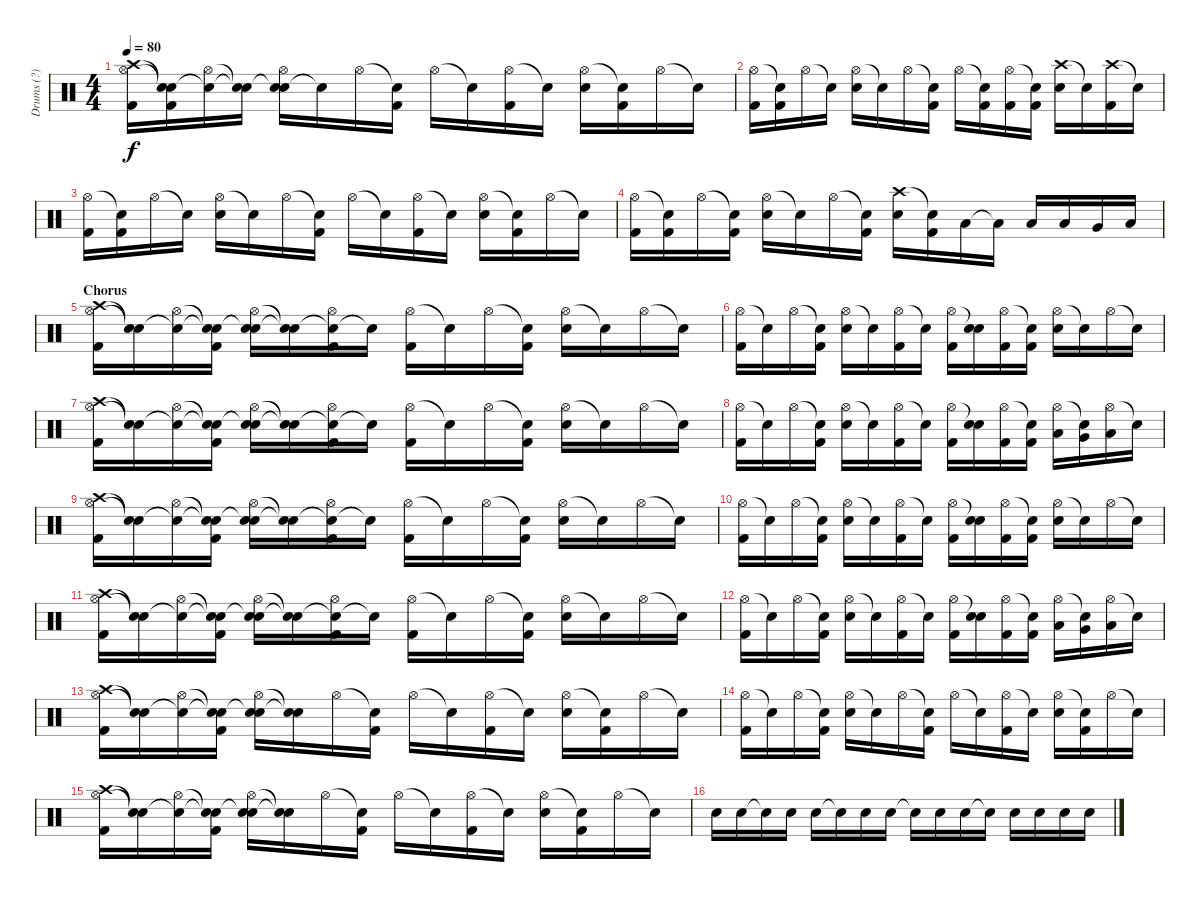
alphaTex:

\track ("Drums (?)" "Drums (?)") {instrument percussion}
\staff {score}
\articulation defaults
\ts (4 4)
\tempo 80
\clef neutral
\ks c
("Crash high (hit)" "Hi-Hat (open)" "Kick (hit) 2").16{dy f} ("Snare (hit)"{t} "Snare (hit)"{t} "Kick (hit) 2").16 ("Snare (hit)"{t} "Hi-Hat (open)").16 ("Snare (hit)"{t} "Snare (hit)"{t}).16 ("Snare (hit)"{t} "Hi-Hat (open)" "Electric Snare (hit)").16 "Snare (hit)"{t}.16 "Hi-Hat (open)".16 ("Snare (hit)"{t} "Kick (hit) 2").16 "Hi-Hat (open)".16 "Snare (hit)"{t}.16 ("Hi-Hat (open)" "Kick (hit) 2").16 "Snare (hit)"{t}.16 ("Hi-Hat (open)" "Electric Snare (hit)").16 ("Snare (hit)"{t} "Kick (hit) 2").16 "Hi-Hat (open)".16 "Snare (hit)"{t}.16 |
("Hi-Hat (open)" "Kick (hit) 2").16 ("Snare (hit)"{t} "Kick (hit) 2").16 "Hi-Hat (open)".16 "Snare (hit)"{t}.16 ("Hi-Hat (open)" "Electric Snare (hit)").16 "Snare (hit)"{t}.16 "Hi-Hat (open)".16 ("Snare (hit)"{t} "Kick (hit) 2").16 "Hi-Hat (open)".16 ("Snare (hit)"{t} "Kick (hit) 2").16 ("Hi-Hat (open)" "Kick (hit) 2").16 ("Snare (hit)"{t} "Kick (hit) 2").16 ("Crash high (hit)" "Electric Snare (hit)").16 "Snare (hit)"{t}.16 ("Crash high (hit)" "Kick (hit) 2").16 "Snare (hit)"{t}.16 |
("Hi-Hat (open)" "Kick (hit) 2").16 ("Snare (hit)"{t} "Kick (hit) 2").16 "Hi-Hat (open)".16 "Snare (hit)"{t}.16 ("Hi-Hat (open)" "Electric Snare (hit)").16 "Snare (hit)"{t}.16 "Hi-Hat (open)".16 ("Snare (hit)"{t} "Kick (hit) 2").16 "Hi-Hat (open)".16 "Snare (hit)"{t}.16 ("Hi-Hat (open)" "Kick (hit) 2").16 "Snare (hit)"{t}.16 ("Hi-Hat (open)" "Electric Snare (hit)").16 ("Snare (hit)"{t} "Kick (hit) 2").16 "Hi-Hat (open)".16 "Snare (hit)"{t}.16 |
("Hi-Hat (open)" "Kick (hit) 2").16 ("Snare (hit)"{t} "Kick (hit) 2").16 "Hi-Hat (open)".16 ("Snare (hit)"{t} "Kick (hit) 2").16 ("Hi-Hat (open)" "Electric Snare (hit)").16 "Snare (hit)"{t}.16 "Hi-Hat (open)".16 ("Snare (hit)"{t} "Kick (hit) 2").16 ("Crash high (hit)" "Electric Snare (hit)").16 ("Snare (hit)"{t} "Kick (hit) 2").16 "Low Tom (hit)".16 "Low Tom (hit)"{t}.16 "Low Tom (hit)".16 "Low Tom (hit)".16 "Very Low Tom (hit)".16 "Low Floor Tom (hit)".16 |
\section ("" "Chorus")
("Crash high (hit)" "Hi-Hat (open)" "Kick (hit) 2").16 ("Snare (hit)"{t} "Snare (hit)"{t}).16 ("Snare (hit)"{t} "Hi-Hat (open)").16 ("Snare (hit)"{t} "Snare (hit)"{t} "Kick (hit) 2").16 ("Snare (hit)"{t} "Hi-Hat (open)" "Electric Snare (hit)").16 ("Snare (hit)"{t} "Snare (hit)"{t}).16 ("Snare (hit)"{t} "Hi-Hat (open)" "Kick (hit) 2").16 "Snare (hit)"{t}.16 ("Hi-Hat (open)" "Kick (hit) 2").16 "Snare (hit)"{t}.16 "Hi-Hat (open)".16 ("Snare (hit)"{t} "Kick (hit) 2").16 ("Hi-Hat (open)" "Electric Snare (hit)").16 "Snare (hit)"{t}.16 "Hi-Hat (open)".16 "Snare (hit)"{t}.16 |
("Hi-Hat (open)" "Kick (hit) 2").16 "Snare (hit)"{t}.16 "Hi-Hat (open)".16 ("Snare (hit)"{t} "Kick (hit) 2").16 ("Hi-Hat (open)" "Electric Snare (hit)").16 "Snare (hit)"{t}.16 ("Hi-Hat (open)" "Kick (hit) 2").16 "Snare (hit)"{t}.16 ("Hi-Hat (open)" "Kick (hit) 2").16 ("Snare (hit)"{t} "Electric Snare (hit)").16 ("Hi-Hat (open)" "Kick (hit) 2").16 ("Snare (hit)"{t} "Kick (hit) 2").16 ("Hi-Hat (open)" "Electric Snare (hit)").16 "Snare (hit)"{t}.16 "Hi-Hat (open)".16 "Snare (hit)"{t}.16 |
("Crash high (hit)" "Hi-Hat (open)" "Kick (hit) 2").16 ("Snare (hit)"{t} "Snare (hit)"{t}).16 ("Snare (hit)"{t} "Hi-Hat (open)").16 ("Snare (hit)"{t} "Snare (hit)"{t} "Kick (hit) 2").16 ("Snare (hit)"{t} "Hi-Hat (open)" "Electric Snare (hit)").16 ("Snare (hit)"{t} "Snare (hit)"{t}).16 ("Snare (hit)"{t} "Hi-Hat (open)" "Kick (hit) 2").16 "Snare (hit)"{t}.16 ("Hi-Hat (open)" "Kick (hit) 2").16 "Snare (hit)"{t}.16 "Hi-Hat (open)".16 ("Snare (hit)"{t} "Kick (hit) 2").16 ("Hi-Hat (open)" "Electric Snare (hit)").16 "Snare (hit)"{t}.16 "Hi-Hat (open)".16 "Snare (hit)"{t}.16 |
("Hi-Hat (open)" "Kick (hit) 2").16 "Snare (hit)"{t}.16 "Hi-Hat (open)".16 ("Snare (hit)"{t} "Kick (hit) 2").16 ("Hi-Hat (open)" "Electric Snare (hit)").16 "Snare (hit)"{t}.16 ("Hi-Hat (open)" "Kick (hit) 2").16 "Snare (hit)"{t}.16 ("Hi-Hat (open)" "Kick (hit) 2").16 ("Snare (hit)"{t} "Electric Snare (hit)").16 ("Hi-Hat (open)" "Kick (hit) 2").16 ("Snare (hit)"{t} "Kick (hit) 2").16 ("Hi-Hat (open)" "Low Tom (hit)").16 ("Snare (hit)"{t} "Very Low Tom (hit)").16 ("Hi-Hat (open)" "Low Floor Tom (hit)").16 "Snare (hit)"{t}.16 |
("Crash high (hit)" "Hi-Hat (open)" "Kick (hit) 2").16 ("Snare (hit)"{t} "Snare (hit)"{t}).16 ("Snare (hit)"{t} "Hi-Hat (open)").16 ("Snare (hit)"{t} "Snare (hit)"{t} "Kick (hit) 2").16 ("Snare (hit)"{t} "Hi-Hat (open)" "Electric Snare (hit)").16 ("Snare (hit)"{t} "Snare (hit)"{t}).16 ("Snare (hit)"{t} "Hi-Hat (open)" "Kick (hit) 2").16 "Snare (hit)"{t}.16 ("Hi-Hat (open)" "Kick (hit) 2").16 "Snare (hit)"{t}.16 "Hi-Hat (open)".16 ("Snare (hit)"{t} "Kick (hit) 2").16 ("Hi-Hat (open)" "Electric Snare (hit)").16 "Snare (hit)"{t}.16 "Hi-Hat (open)".16 "Snare (hit)"{t}.16 |
("Hi-Hat (open)" "Kick (hit) 2").16 "Snare (hit)"{t}.16 "Hi-Hat (open)".16 ("Snare (hit)"{t} "Kick (hit) 2").16 ("Hi-Hat (open)" "Electric Snare (hit)").16 "Snare (hit)"{t}.16 ("Hi-Hat (open)" "Kick (hit) 2").16 "Snare (hit)"{t}.16 ("Hi-Hat (open)" "Kick (hit) 2").16 ("Snare (hit)"{t} "Electric Snare (hit)").16 ("Hi-Hat (open)" "Kick (hit) 2").16 ("Snare (hit)"{t} "Kick (hit) 2").16 ("Hi-Hat (open)" "Electric Snare (hit)").16 "Snare (hit)"{t}.16 "Hi-Hat (open)".16 "Snare (hit)"{t}.16 |
("Crash high (hit)" "Hi-Hat (open)" "Kick (hit) 2").16 ("Snare (hit)"{t} "Snare (hit)"{t}).16 ("Snare (hit)"{t} "Hi-Hat (open)").16 ("Snare (hit)"{t} "Snare (hit)"{t} "Kick (hit) 2").16 ("Snare (hit)"{t} "Hi-Hat (open)" "Electric Snare (hit)").16 ("Snare (hit)"{t} "Snare (hit)"{t}).16 ("Snare (hit)"{t} "Hi-Hat (open)" "Kick (hit) 2").16 "Snare (hit)"{t}.16 ("Hi-Hat (open)" "Kick (hit) 2").16 "Snare (hit)"{t}.16 "Hi-Hat (open)".16 ("Snare (hit)"{t} "Kick (hit) 2").16 ("Hi-Hat (open)" "Electric Snare (hit)").16 "Snare (hit)"{t}.16 "Hi-Hat (open)".16 "Snare (hit)"{t}.16 |
("Hi-Hat (open)" "Kick (hit) 2").16 "Snare (hit)"{t}.16 "Hi-Hat (open)".16 ("Snare (hit)"{t} "Kick (hit) 2").16 ("Hi-Hat (open)" "Electric Snare (hit)").16 "Snare (hit)"{t}.16 ("Hi-Hat (open)" "Kick (hit) 2").16 "Snare (hit)"{t}.16 ("Hi-Hat (open)" "Kick (hit) 2").16 ("Snare (hit)"{t} "Electric Snare (hit)").16 ("Hi-Hat (open)" "Kick (hit) 2").16 ("Snare (hit)"{t} "Kick (hit) 2").16 ("Hi-Hat (open)" "Low Tom (hit)").16 ("Snare (hit)"{t} "Very Low Tom (hit)").16 ("Hi-Hat (open)" "Low Floor Tom (hit)").16 "Snare (hit)"{t}.16 |
("Crash high (hit)" "Hi-Hat (open)" "Kick (hit) 2").16 ("Snare (hit)"{t} "Snare (hit)"{t}).16 ("Snare (hit)"{t} "Hi-Hat (open)").16 ("Snare (hit)"{t} "Snare (hit)"{t} "Kick (hit) 2").16 ("Snare (hit)"{t} "Hi-Hat (open)" "Electric Snare (hit)").16 ("Snare (hit)"{t} "Snare (hit)"{t}).16 "Hi-Hat (open)".16 ("Snare (hit)"{t} "Kick (hit) 2").16 "Hi-Hat (open)".16 "Snare (hit)"{t}.16 ("Hi-Hat (open)" "Kick (hit) 2").16 "Snare (hit)"{t}.16 ("Hi-Hat (open)" "Electric Snare (hit)").16 ("Snare (hit)"{t} "Kick (hit) 2").16 "Hi-Hat (open)".16 "Snare (hit)"{t}.16 |
("Hi-Hat (open)" "Kick (hit) 2").16 "Snare (hit)"{t}.16 "Hi-Hat (open)".16 ("Snare (hit)"{t} "Kick (hit) 2").16 ("Hi-Hat (open)" "Electric Snare (hit)").16 "Snare (hit)"{t}.16 "Hi-Hat (open)".16 ("Snare (hit)"{t} "Kick (hit) 2").16 "Hi-Hat (open)".16 "Snare (hit)"{t}.16 ("Hi-Hat (open)" "Kick (hit) 2").16 "Snare (hit)"{t}.16 ("Hi-Hat (open)" "Electric Snare (hit)").16 ("Snare (hit)"{t} "Kick (hit) 2").16 "Hi-Hat (open)".16 "Snare (hit)"{t}.16 |
("Crash high (hit)" "Hi-Hat (open)" "Kick (hit) 2").16 ("Snare (hit)"{t} "Snare (hit)"{t}).16 ("Snare (hit)"{t} "Hi-Hat (open)").16 ("Snare (hit)"{t} "Snare (hit)"{t} "Kick (hit) 2").16 ("Snare (hit)"{t} "Hi-Hat (open)" "Electric Snare (hit)").16 ("Snare (hit)"{t} "Snare (hit)"{t}).16 "Hi-Hat (open)".16 ("Snare (hit)"{t} "Kick (hit) 2").16 "Hi-Hat (open)".16 "Snare (hit)"{t}.16 ("Hi-Hat (open)" "Kick (hit) 2").16 "Snare (hit)"{t}.16 ("Hi-Hat (open)" "Electric Snare (hit)").16 ("Snare (hit)"{t} "Kick (hit) 2").16 "Hi-Hat (open)".16 "Snare (hit)"{t}.16 |
"Electric Snare (hit)".16 "Electric Snare (hit)".16 "Snare (hit)"{t}.16 "Electric Snare (hit)".16 "Electric Snare (hit)".16 "Snare (hit)"{t}.16 "Electric Snare (hit)".16 "Electric Snare (hit)".16 "Snare (hit)"{t}.16 "Electric Snare (hit)".16 "Electric Snare (hit)".16 "Snare (hit)"{t}.16 "Electric Snare (hit)".16 "Electric Snare (hit)".16 "Electric Snare (hit)".16 "Electric Snare (hit)".16
